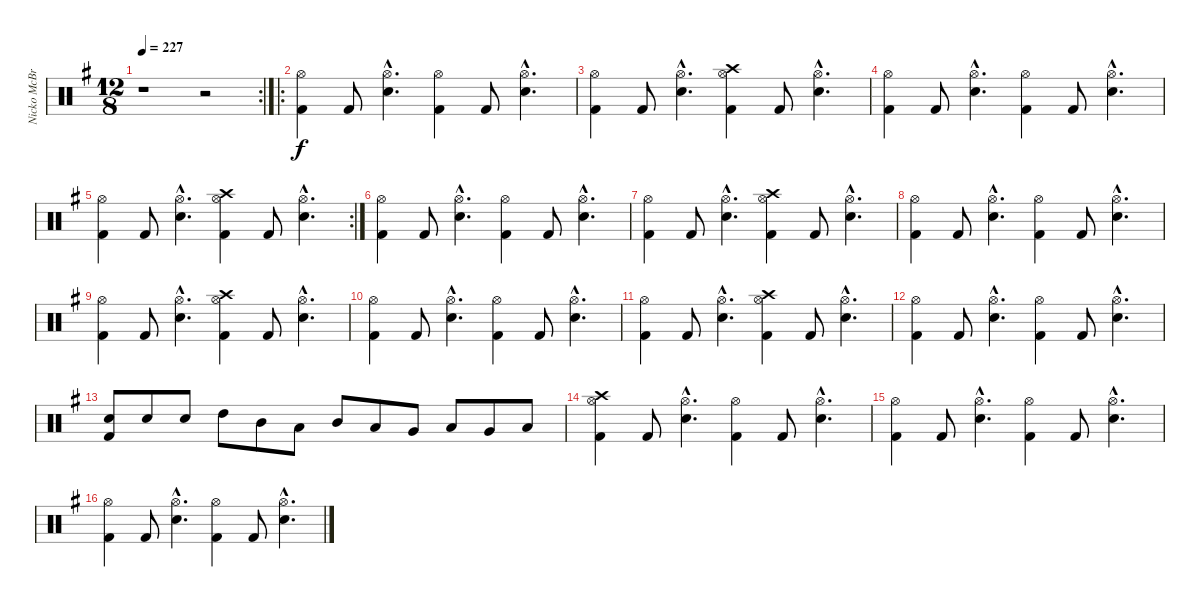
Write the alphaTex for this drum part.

\track ("Nicko McBrain" "Nicko McBr") {instrument percussion}
\staff {score}
\articulation defaults
\rc 2
\ts (12 8)
\tempo 227
\clef neutral
\ks g
r.1{dy f} r.2 |
\ro
("Kick (hit) 2" "Hi-Hat (open)").4 "Kick (hit) 2".8 ("Snare (hit) 2"{hac} "Hi-Hat (open)"{hac}).4{d} ("Kick (hit) 2" "Hi-Hat (open)").4 "Kick (hit) 2".8 ("Snare (hit) 2"{hac} "Hi-Hat (open)"{hac}).4{d} |
("Kick (hit) 2" "Hi-Hat (open)").4 "Kick (hit) 2".8 ("Snare (hit) 2"{hac} "Hi-Hat (open)"{hac}).4{d} ("Kick (hit) 2" "Hi-Hat (open)" "Crash high (hit)").4 "Kick (hit) 2".8 ("Snare (hit) 2"{hac} "Hi-Hat (open)"{hac}).4{d} |
("Kick (hit) 2" "Hi-Hat (open)").4 "Kick (hit) 2".8 ("Snare (hit) 2"{hac} "Hi-Hat (open)"{hac}).4{d} ("Kick (hit) 2" "Hi-Hat (open)").4 "Kick (hit) 2".8 ("Snare (hit) 2"{hac} "Hi-Hat (open)"{hac}).4{d} |
\rc 2
("Kick (hit) 2" "Hi-Hat (open)").4 "Kick (hit) 2".8 ("Snare (hit) 2"{hac} "Hi-Hat (open)"{hac}).4{d} ("Kick (hit) 2" "Hi-Hat (open)" "Crash high (hit)").4 "Kick (hit) 2".8 ("Snare (hit) 2"{hac} "Hi-Hat (open)"{hac}).4{d} |
("Kick (hit) 2" "Hi-Hat (open)").4 "Kick (hit) 2".8 ("Snare (hit) 2"{hac} "Hi-Hat (open)"{hac}).4{d} ("Kick (hit) 2" "Hi-Hat (open)").4 "Kick (hit) 2".8 ("Snare (hit) 2"{hac} "Hi-Hat (open)"{hac}).4{d} |
("Kick (hit) 2" "Hi-Hat (open)").4 "Kick (hit) 2".8 ("Snare (hit) 2"{hac} "Hi-Hat (open)"{hac}).4{d} ("Kick (hit) 2" "Hi-Hat (open)" "Crash high (hit)").4 "Kick (hit) 2".8 ("Snare (hit) 2"{hac} "Hi-Hat (open)"{hac}).4{d} |
("Kick (hit) 2" "Hi-Hat (open)").4 "Kick (hit) 2".8 ("Snare (hit) 2"{hac} "Hi-Hat (open)"{hac}).4{d} ("Kick (hit) 2" "Hi-Hat (open)").4 "Kick (hit) 2".8 ("Snare (hit) 2"{hac} "Hi-Hat (open)"{hac}).4{d} |
("Kick (hit) 2" "Hi-Hat (open)").4 "Kick (hit) 2".8 ("Snare (hit) 2"{hac} "Hi-Hat (open)"{hac}).4{d} ("Kick (hit) 2" "Hi-Hat (open)" "Crash high (hit)").4 "Kick (hit) 2".8 ("Snare (hit) 2"{hac} "Hi-Hat (open)"{hac}).4{d} |
("Kick (hit) 2" "Hi-Hat (open)").4 "Kick (hit) 2".8 ("Snare (hit) 2"{hac} "Hi-Hat (open)"{hac}).4{d} ("Kick (hit) 2" "Hi-Hat (open)").4 "Kick (hit) 2".8 ("Snare (hit) 2"{hac} "Hi-Hat (open)"{hac}).4{d} |
("Kick (hit) 2" "Hi-Hat (open)").4 "Kick (hit) 2".8 ("Snare (hit) 2"{hac} "Hi-Hat (open)"{hac}).4{d} ("Kick (hit) 2" "Hi-Hat (open)" "Crash high (hit)").4 "Kick (hit) 2".8 ("Snare (hit) 2"{hac} "Hi-Hat (open)"{hac}).4{d} |
("Kick (hit) 2" "Hi-Hat (open)").4 "Kick (hit) 2".8 ("Snare (hit) 2"{hac} "Hi-Hat (open)"{hac}).4{d} ("Kick (hit) 2" "Hi-Hat (open)").4 "Kick (hit) 2".8 ("Snare (hit) 2"{hac} "Hi-Hat (open)"{hac}).4{d} |
("Kick (hit) 2" "Snare (hit) 2").8 "Snare (hit) 2".8 "Snare (hit) 2".8 "High Tom (hit)".8 "Mid Tom (hit)".8 "Low Tom (hit)".8 "Mid Tom (hit)".8 "Low Tom (hit)".8 "Very Low Tom (hit)".8 "Low Tom (hit)".8 "Very Low Tom (hit)".8 "Low Floor Tom (hit)".8 |
("Kick (hit) 2" "Hi-Hat (open)" "Crash high (hit)").4 "Kick (hit) 2".8 ("Snare (hit) 2"{hac} "Hi-Hat (open)"{hac}).4{d} ("Kick (hit) 2" "Hi-Hat (open)").4 "Kick (hit) 2".8 ("Snare (hit) 2"{hac} "Hi-Hat (open)"{hac}).4{d} |
("Kick (hit) 2" "Hi-Hat (open)").4 "Kick (hit) 2".8 ("Snare (hit) 2"{hac} "Hi-Hat (open)"{hac}).4{d} ("Kick (hit) 2" "Hi-Hat (open)").4 "Kick (hit) 2".8 ("Snare (hit) 2"{hac} "Hi-Hat (open)"{hac}).4{d} |
("Kick (hit) 2" "Hi-Hat (open)").4 "Kick (hit) 2".8 ("Snare (hit) 2"{hac} "Hi-Hat (open)"{hac}).4{d} ("Kick (hit) 2" "Hi-Hat (open)").4 "Kick (hit) 2".8 ("Snare (hit) 2"{hac} "Hi-Hat (open)"{hac}).4{d}
